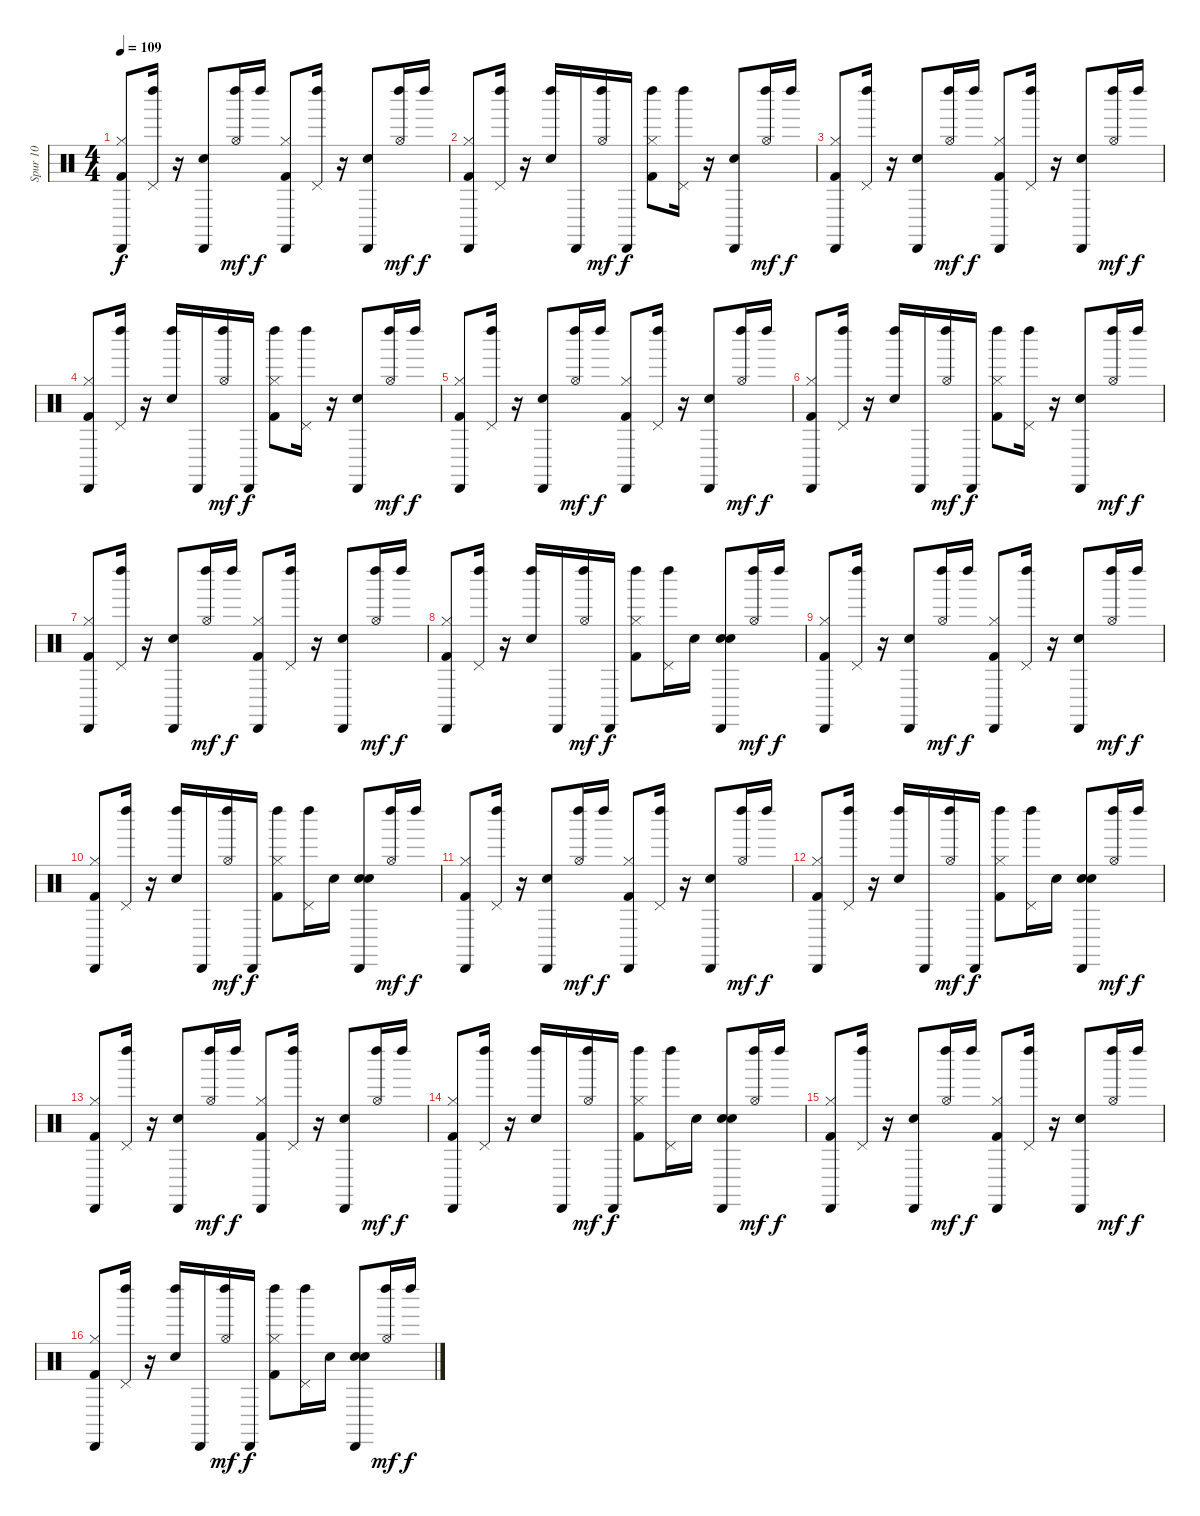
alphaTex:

\track ("Spur 10" "Spur 10") {instrument percussion}
\staff {score}
\articulation defaults
\ts (4 4)
\tempo 109
\clef neutral
\ks c
("Kick (hit) 2" "Hi-Hat (closed)" "Cabasa (hit)").8{dy f} ("Left Maraca (hit)" "Pedal Hi-Hat (hit)").16 r.16 ("Snare (hit) 2" "Cabasa (hit)").8 ("Left Maraca (hit)" "Hi-Hat (open)").16{dy mf} "Left Maraca (hit)".16{dy f} ("Kick (hit) 2" "Cabasa (hit)" "Hi-Hat (closed)").8 ("Pedal Hi-Hat (hit)" "Left Maraca (hit)").16 r.16 ("Snare (hit) 2" "Cabasa (hit)").8 ("Left Maraca (hit)" "Hi-Hat (open)").16{dy mf} "Left Maraca (hit)".16{dy f} |
("Kick (hit) 2" "Hi-Hat (closed)" "Cabasa (hit)").8 ("Pedal Hi-Hat (hit)" "Left Maraca (hit)").16 r.16 ("Snare (hit) 2" "Left Maraca (hit)").16 "Cabasa (hit)".16 ("Hi-Hat (open)" "Left Maraca (hit)").16{dy mf} "Cabasa (hit)".16{dy f} ("Kick (hit) 2" "Left Maraca (hit)" "Hi-Hat (closed)").8 ("Left Maraca (hit)" "Pedal Hi-Hat (hit)").16 r.16 ("Snare (hit) 2" "Cabasa (hit)").8 ("Left Maraca (hit)" "Hi-Hat (open)").16{dy mf} "Left Maraca (hit)".16{dy f} |
("Kick (hit) 2" "Hi-Hat (closed)" "Cabasa (hit)").8 ("Left Maraca (hit)" "Pedal Hi-Hat (hit)").16 r.16 ("Snare (hit) 2" "Cabasa (hit)").8 ("Left Maraca (hit)" "Hi-Hat (open)").16{dy mf} "Left Maraca (hit)".16{dy f} ("Kick (hit) 2" "Cabasa (hit)" "Hi-Hat (closed)").8 ("Pedal Hi-Hat (hit)" "Left Maraca (hit)").16 r.16 ("Snare (hit) 2" "Cabasa (hit)").8 ("Left Maraca (hit)" "Hi-Hat (open)").16{dy mf} "Left Maraca (hit)".16{dy f} |
("Kick (hit) 2" "Hi-Hat (closed)" "Cabasa (hit)").8 ("Pedal Hi-Hat (hit)" "Left Maraca (hit)").16 r.16 ("Snare (hit) 2" "Left Maraca (hit)").16 "Cabasa (hit)".16 ("Hi-Hat (open)" "Left Maraca (hit)").16{dy mf} "Cabasa (hit)".16{dy f} ("Kick (hit) 2" "Left Maraca (hit)" "Hi-Hat (closed)").8 ("Left Maraca (hit)" "Pedal Hi-Hat (hit)").16 r.16 ("Snare (hit) 2" "Cabasa (hit)").8 ("Left Maraca (hit)" "Hi-Hat (open)").16{dy mf} "Left Maraca (hit)".16{dy f} |
("Kick (hit) 2" "Hi-Hat (closed)" "Cabasa (hit)").8 ("Left Maraca (hit)" "Pedal Hi-Hat (hit)").16 r.16 ("Snare (hit) 2" "Cabasa (hit)").8 ("Left Maraca (hit)" "Hi-Hat (open)").16{dy mf} "Left Maraca (hit)".16{dy f} ("Kick (hit) 2" "Cabasa (hit)" "Hi-Hat (closed)").8 ("Pedal Hi-Hat (hit)" "Left Maraca (hit)").16 r.16 ("Snare (hit) 2" "Cabasa (hit)").8 ("Left Maraca (hit)" "Hi-Hat (open)").16{dy mf} "Left Maraca (hit)".16{dy f} |
("Kick (hit) 2" "Hi-Hat (closed)" "Cabasa (hit)").8 ("Pedal Hi-Hat (hit)" "Left Maraca (hit)").16 r.16 ("Snare (hit) 2" "Left Maraca (hit)").16 "Cabasa (hit)".16 ("Hi-Hat (open)" "Left Maraca (hit)").16{dy mf} "Cabasa (hit)".16{dy f} ("Kick (hit) 2" "Left Maraca (hit)" "Hi-Hat (closed)").8 ("Left Maraca (hit)" "Pedal Hi-Hat (hit)").16 r.16 ("Snare (hit) 2" "Cabasa (hit)").8 ("Left Maraca (hit)" "Hi-Hat (open)").16{dy mf} "Left Maraca (hit)".16{dy f} |
("Kick (hit) 2" "Hi-Hat (closed)" "Cabasa (hit)").8 ("Left Maraca (hit)" "Pedal Hi-Hat (hit)").16 r.16 ("Snare (hit) 2" "Cabasa (hit)").8 ("Left Maraca (hit)" "Hi-Hat (open)").16{dy mf} "Left Maraca (hit)".16{dy f} ("Kick (hit) 2" "Cabasa (hit)" "Hi-Hat (closed)").8 ("Pedal Hi-Hat (hit)" "Left Maraca (hit)").16 r.16 ("Snare (hit) 2" "Cabasa (hit)").8 ("Left Maraca (hit)" "Hi-Hat (open)").16{dy mf} "Left Maraca (hit)".16{dy f} |
("Kick (hit) 2" "Hi-Hat (closed)" "Cabasa (hit)").8 ("Pedal Hi-Hat (hit)" "Left Maraca (hit)").16 r.16 ("Snare (hit) 2" "Left Maraca (hit)").16 "Cabasa (hit)".16 ("Hi-Hat (open)" "Left Maraca (hit)").16{dy mf} "Cabasa (hit)".16{dy f} ("Kick (hit) 2" "Left Maraca (hit)" "Hi-Hat (closed)").8 ("Left Maraca (hit)" "Pedal Hi-Hat (hit)").16 "Electric Snare (hit)".16 ("Electric Snare (hit)" "Snare (hit) 2" "Cabasa (hit)").8 ("Left Maraca (hit)" "Hi-Hat (open)").16{dy mf} "Left Maraca (hit)".16{dy f} |
("Kick (hit) 2" "Hi-Hat (closed)" "Cabasa (hit)").8 ("Left Maraca (hit)" "Pedal Hi-Hat (hit)").16 r.16 ("Snare (hit) 2" "Cabasa (hit)").8 ("Left Maraca (hit)" "Hi-Hat (open)").16{dy mf} "Left Maraca (hit)".16{dy f} ("Kick (hit) 2" "Cabasa (hit)" "Hi-Hat (closed)").8 ("Pedal Hi-Hat (hit)" "Left Maraca (hit)").16 r.16 ("Snare (hit) 2" "Cabasa (hit)").8 ("Left Maraca (hit)" "Hi-Hat (open)").16{dy mf} "Left Maraca (hit)".16{dy f} |
("Kick (hit) 2" "Hi-Hat (closed)" "Cabasa (hit)").8 ("Pedal Hi-Hat (hit)" "Left Maraca (hit)").16 r.16 ("Snare (hit) 2" "Left Maraca (hit)").16 "Cabasa (hit)".16 ("Hi-Hat (open)" "Left Maraca (hit)").16{dy mf} "Cabasa (hit)".16{dy f} ("Kick (hit) 2" "Left Maraca (hit)" "Hi-Hat (closed)").8 ("Left Maraca (hit)" "Pedal Hi-Hat (hit)").16 "Electric Snare (hit)".16 ("Snare (hit) 2" "Electric Snare (hit)" "Cabasa (hit)").8 ("Left Maraca (hit)" "Hi-Hat (open)").16{dy mf} "Left Maraca (hit)".16{dy f} |
("Kick (hit) 2" "Hi-Hat (closed)" "Cabasa (hit)").8 ("Left Maraca (hit)" "Pedal Hi-Hat (hit)").16 r.16 ("Snare (hit) 2" "Cabasa (hit)").8 ("Left Maraca (hit)" "Hi-Hat (open)").16{dy mf} "Left Maraca (hit)".16{dy f} ("Kick (hit) 2" "Cabasa (hit)" "Hi-Hat (closed)").8 ("Pedal Hi-Hat (hit)" "Left Maraca (hit)").16 r.16 ("Snare (hit) 2" "Cabasa (hit)").8 ("Left Maraca (hit)" "Hi-Hat (open)").16{dy mf} "Left Maraca (hit)".16{dy f} |
("Kick (hit) 2" "Hi-Hat (closed)" "Cabasa (hit)").8 ("Pedal Hi-Hat (hit)" "Left Maraca (hit)").16 r.16 ("Snare (hit) 2" "Left Maraca (hit)").16 "Cabasa (hit)".16 ("Hi-Hat (open)" "Left Maraca (hit)").16{dy mf} "Cabasa (hit)".16{dy f} ("Kick (hit) 2" "Left Maraca (hit)" "Hi-Hat (closed)").8 ("Left Maraca (hit)" "Pedal Hi-Hat (hit)").16 "Electric Snare (hit)".16 ("Electric Snare (hit)" "Snare (hit) 2" "Cabasa (hit)").8 ("Left Maraca (hit)" "Hi-Hat (open)").16{dy mf} "Left Maraca (hit)".16{dy f} |
("Kick (hit) 2" "Hi-Hat (closed)" "Cabasa (hit)").8 ("Left Maraca (hit)" "Pedal Hi-Hat (hit)").16 r.16 ("Snare (hit) 2" "Cabasa (hit)").8 ("Left Maraca (hit)" "Hi-Hat (open)").16{dy mf} "Left Maraca (hit)".16{dy f} ("Kick (hit) 2" "Cabasa (hit)" "Hi-Hat (closed)").8 ("Pedal Hi-Hat (hit)" "Left Maraca (hit)").16 r.16 ("Snare (hit) 2" "Cabasa (hit)").8 ("Left Maraca (hit)" "Hi-Hat (open)").16{dy mf} "Left Maraca (hit)".16{dy f} |
("Kick (hit) 2" "Hi-Hat (closed)" "Cabasa (hit)").8 ("Pedal Hi-Hat (hit)" "Left Maraca (hit)").16 r.16 ("Snare (hit) 2" "Left Maraca (hit)").16 "Cabasa (hit)".16 ("Hi-Hat (open)" "Left Maraca (hit)").16{dy mf} "Cabasa (hit)".16{dy f} ("Kick (hit) 2" "Left Maraca (hit)" "Hi-Hat (closed)").8 ("Left Maraca (hit)" "Pedal Hi-Hat (hit)").16 "Electric Snare (hit)".16 ("Electric Snare (hit)" "Snare (hit) 2" "Cabasa (hit)").8 ("Left Maraca (hit)" "Hi-Hat (open)").16{dy mf} "Left Maraca (hit)".16{dy f} |
("Kick (hit) 2" "Hi-Hat (closed)" "Cabasa (hit)").8 ("Left Maraca (hit)" "Pedal Hi-Hat (hit)").16 r.16 ("Snare (hit) 2" "Cabasa (hit)").8 ("Left Maraca (hit)" "Hi-Hat (open)").16{dy mf} "Left Maraca (hit)".16{dy f} ("Kick (hit) 2" "Cabasa (hit)" "Hi-Hat (closed)").8 ("Pedal Hi-Hat (hit)" "Left Maraca (hit)").16 r.16 ("Snare (hit) 2" "Cabasa (hit)").8 ("Left Maraca (hit)" "Hi-Hat (open)").16{dy mf} "Left Maraca (hit)".16{dy f} |
("Kick (hit) 2" "Hi-Hat (closed)" "Cabasa (hit)").8 ("Pedal Hi-Hat (hit)" "Left Maraca (hit)").16 r.16 ("Snare (hit) 2" "Left Maraca (hit)").16 "Cabasa (hit)".16 ("Hi-Hat (open)" "Left Maraca (hit)").16{dy mf} "Cabasa (hit)".16{dy f} ("Kick (hit) 2" "Left Maraca (hit)" "Hi-Hat (closed)").8 ("Left Maraca (hit)" "Pedal Hi-Hat (hit)").16 "Electric Snare (hit)".16 ("Electric Snare (hit)" "Snare (hit) 2" "Cabasa (hit)").8 ("Left Maraca (hit)" "Hi-Hat (open)").16{dy mf} "Left Maraca (hit)".16{dy f}
